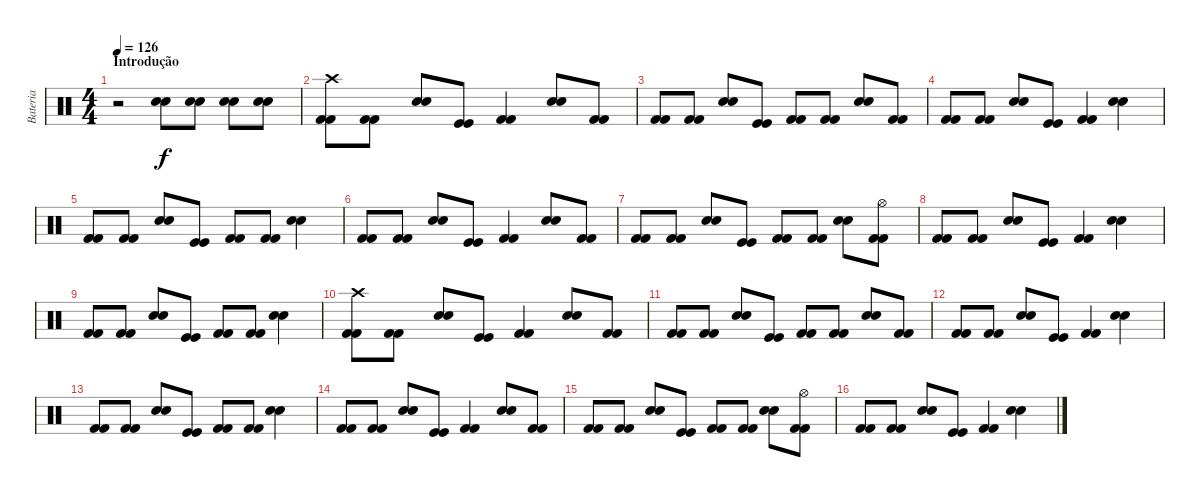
\track ("Bateria" "Bateria") {instrument percussion}
\staff {score}
\articulation defaults
\ts (4 4)
\section ("" "Introdução")
\tempo 126
\clef neutral
\ks c
r.2{dy f} ("Electric Snare (hit)" "Snare (hit) 2").8 ("Electric Snare (hit)" "Snare (hit) 2").8 ("Electric Snare (hit)" "Snare (hit) 2").8 ("Electric Snare (hit)" "Snare (hit) 2").8 |
("Crash high (hit)" "Kick (hit) 2" "Kick (hit) 2").8 ("Kick (hit) 2" "Kick (hit) 2").8 ("Electric Snare (hit)" "Snare (hit) 2").8 ("Kick (hit)" "Kick (hit)").8 ("Kick (hit) 2" "Kick (hit) 2").4 ("Electric Snare (hit)" "Snare (hit) 2").8 ("Kick (hit) 2" "Kick (hit) 2").8 |
("Kick (hit) 2" "Kick (hit) 2").8 ("Kick (hit) 2" "Kick (hit) 2").8 ("Electric Snare (hit)" "Snare (hit) 2").8 ("Kick (hit)" "Kick (hit)").8 ("Kick (hit) 2" "Kick (hit) 2").8 ("Kick (hit) 2" "Kick (hit) 2").8 ("Electric Snare (hit)" "Snare (hit) 2").8 ("Kick (hit) 2" "Kick (hit) 2").8 |
("Kick (hit) 2" "Kick (hit) 2").8 ("Kick (hit) 2" "Kick (hit) 2").8 ("Electric Snare (hit)" "Snare (hit) 2").8 ("Kick (hit)" "Kick (hit)").8 ("Kick (hit) 2" "Kick (hit) 2").4 ("Electric Snare (hit)" "Snare (hit) 2").4 |
("Kick (hit) 2" "Kick (hit) 2").8 ("Kick (hit) 2" "Kick (hit) 2").8 ("Electric Snare (hit)" "Snare (hit) 2").8 ("Kick (hit)" "Kick (hit)").8 ("Kick (hit) 2" "Kick (hit) 2").8 ("Kick (hit) 2" "Kick (hit) 2").8 ("Electric Snare (hit)" "Snare (hit) 2").4 |
("Kick (hit) 2" "Kick (hit) 2").8 ("Kick (hit) 2" "Kick (hit) 2").8 ("Electric Snare (hit)" "Snare (hit) 2").8 ("Kick (hit)" "Kick (hit)").8 ("Kick (hit) 2" "Kick (hit) 2").4 ("Electric Snare (hit)" "Snare (hit) 2").8 ("Kick (hit) 2" "Kick (hit) 2").8 |
("Kick (hit) 2" "Kick (hit) 2").8 ("Kick (hit) 2" "Kick (hit) 2").8 ("Electric Snare (hit)" "Snare (hit) 2").8 ("Kick (hit)" "Kick (hit)").8 ("Kick (hit) 2" "Kick (hit) 2").8 ("Kick (hit) 2" "Kick (hit) 2").8 ("Electric Snare (hit)" "Snare (hit) 2").8 ("Hi-Hat (open)" "Kick (hit) 2" "Kick (hit) 2").8 |
("Kick (hit) 2" "Kick (hit) 2").8 ("Kick (hit) 2" "Kick (hit) 2").8 ("Electric Snare (hit)" "Snare (hit) 2").8 ("Kick (hit)" "Kick (hit)").8 ("Kick (hit) 2" "Kick (hit) 2").4 ("Electric Snare (hit)" "Snare (hit) 2").4 |
("Kick (hit) 2" "Kick (hit) 2").8 ("Kick (hit) 2" "Kick (hit) 2").8 ("Electric Snare (hit)" "Snare (hit) 2").8 ("Kick (hit)" "Kick (hit)").8 ("Kick (hit) 2" "Kick (hit) 2").8 ("Kick (hit) 2" "Kick (hit) 2").8 ("Electric Snare (hit)" "Snare (hit) 2").4 |
("Crash high (hit)" "Kick (hit) 2" "Kick (hit) 2").8 ("Kick (hit) 2" "Kick (hit) 2").8 ("Electric Snare (hit)" "Snare (hit) 2").8 ("Kick (hit)" "Kick (hit)").8 ("Kick (hit) 2" "Kick (hit) 2").4 ("Electric Snare (hit)" "Snare (hit) 2").8 ("Kick (hit) 2" "Kick (hit) 2").8 |
("Kick (hit) 2" "Kick (hit) 2").8 ("Kick (hit) 2" "Kick (hit) 2").8 ("Electric Snare (hit)" "Snare (hit) 2").8 ("Kick (hit)" "Kick (hit)").8 ("Kick (hit) 2" "Kick (hit) 2").8 ("Kick (hit) 2" "Kick (hit) 2").8 ("Electric Snare (hit)" "Snare (hit) 2").8 ("Kick (hit) 2" "Kick (hit) 2").8 |
("Kick (hit) 2" "Kick (hit) 2").8 ("Kick (hit) 2" "Kick (hit) 2").8 ("Electric Snare (hit)" "Snare (hit) 2").8 ("Kick (hit)" "Kick (hit)").8 ("Kick (hit) 2" "Kick (hit) 2").4 ("Electric Snare (hit)" "Snare (hit) 2").4 |
("Kick (hit) 2" "Kick (hit) 2").8 ("Kick (hit) 2" "Kick (hit) 2").8 ("Electric Snare (hit)" "Snare (hit) 2").8 ("Kick (hit)" "Kick (hit)").8 ("Kick (hit) 2" "Kick (hit) 2").8 ("Kick (hit) 2" "Kick (hit) 2").8 ("Electric Snare (hit)" "Snare (hit) 2").4 |
("Kick (hit) 2" "Kick (hit) 2").8 ("Kick (hit) 2" "Kick (hit) 2").8 ("Electric Snare (hit)" "Snare (hit) 2").8 ("Kick (hit)" "Kick (hit)").8 ("Kick (hit) 2" "Kick (hit) 2").4 ("Electric Snare (hit)" "Snare (hit) 2").8 ("Kick (hit) 2" "Kick (hit) 2").8 |
("Kick (hit) 2" "Kick (hit) 2").8 ("Kick (hit) 2" "Kick (hit) 2").8 ("Electric Snare (hit)" "Snare (hit) 2").8 ("Kick (hit)" "Kick (hit)").8 ("Kick (hit) 2" "Kick (hit) 2").8 ("Kick (hit) 2" "Kick (hit) 2").8 ("Electric Snare (hit)" "Snare (hit) 2").8 ("Hi-Hat (open)" "Kick (hit) 2" "Kick (hit) 2").8 |
("Kick (hit) 2" "Kick (hit) 2").8 ("Kick (hit) 2" "Kick (hit) 2").8 ("Electric Snare (hit)" "Snare (hit) 2").8 ("Kick (hit)" "Kick (hit)").8 ("Kick (hit) 2" "Kick (hit) 2").4 ("Electric Snare (hit)" "Snare (hit) 2").4
